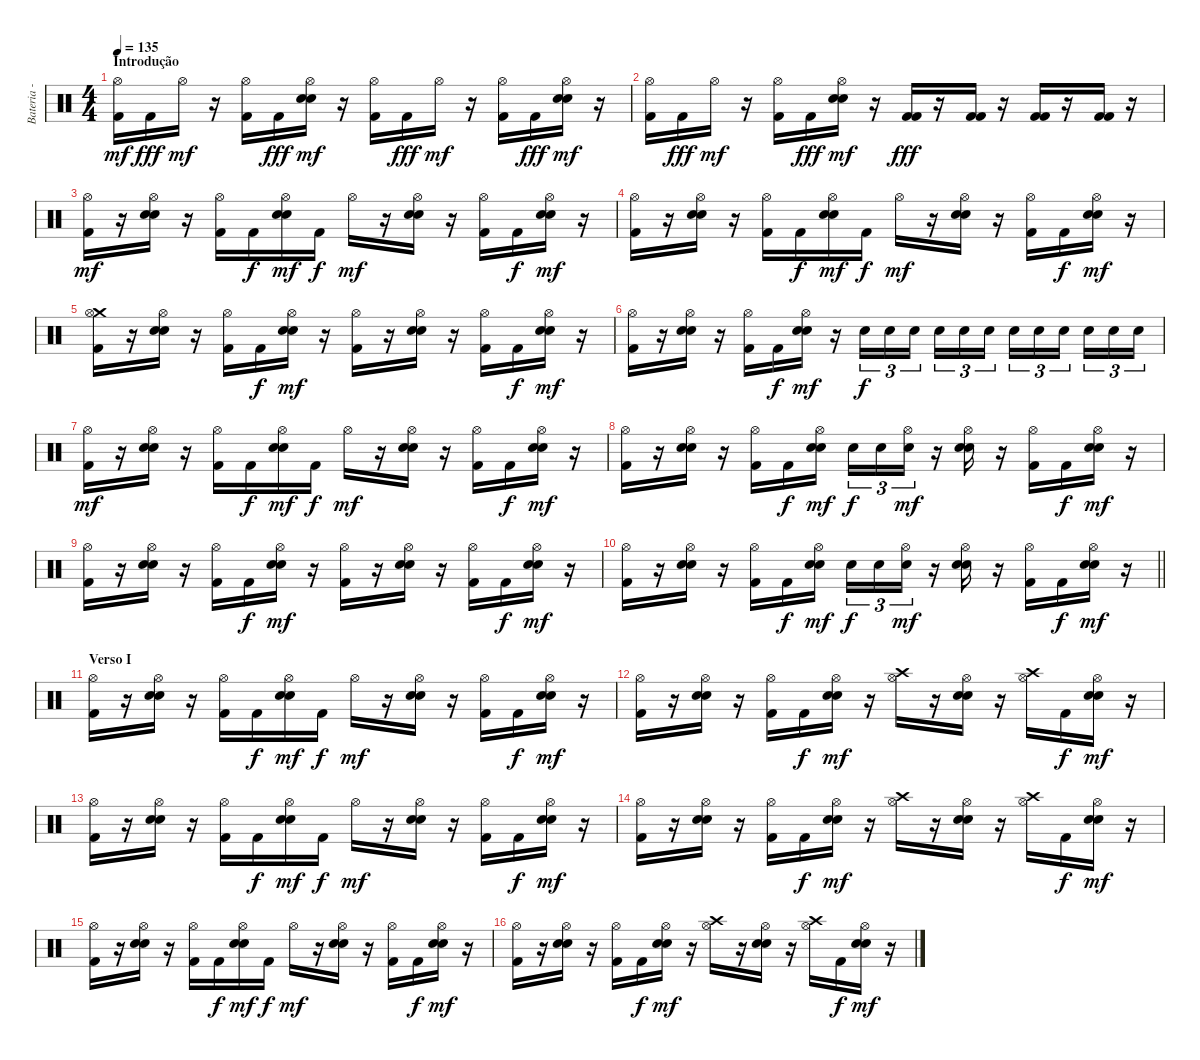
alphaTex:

\track ("Bateria - Larzon" "Bateria - ") {instrument percussion}
\staff {score}
\articulation defaults
\ts (4 4)
\section ("" "Introdução")
\tempo 135
\clef neutral
\ks c
("Kick (hit) 2" "Hi-Hat (open)").16{dy mf} "Kick (hit) 2".16{dy fff} "Hi-Hat (open)".16{dy mf} r.16 ("Kick (hit) 2" "Hi-Hat (open)").16 "Kick (hit) 2".16{dy fff} ("Electric Snare (hit)" "Electric Snare (hit)" "Hi-Hat (open)").16{dy mf} r.16 ("Kick (hit) 2" "Hi-Hat (open)").16 "Kick (hit) 2".16{dy fff} "Hi-Hat (open)".16{dy mf} r.16 ("Kick (hit) 2" "Hi-Hat (open)").16 "Kick (hit) 2".16{dy fff} ("Electric Snare (hit)" "Electric Snare (hit)" "Hi-Hat (open)").16{dy mf} r.16 |
("Kick (hit) 2" "Hi-Hat (open)").16 "Kick (hit) 2".16{dy fff} "Hi-Hat (open)".16{dy mf} r.16 ("Kick (hit) 2" "Hi-Hat (open)").16 "Kick (hit) 2".16{dy fff} ("Electric Snare (hit)" "Electric Snare (hit)" "Hi-Hat (open)").16{dy mf} r.16 ("Kick (hit) 2" "Kick (hit) 2").16{dy fff} r.16 ("Kick (hit) 2" "Kick (hit) 2").16 r.16 ("Kick (hit) 2" "Kick (hit) 2").16 r.16 ("Kick (hit) 2" "Kick (hit) 2").16 r.16 |
("Kick (hit) 2" "Hi-Hat (open)").16{dy mf} r.16 ("Electric Snare (hit)" "Electric Snare (hit)" "Hi-Hat (open)").16 r.16 ("Kick (hit) 2" "Hi-Hat (open)").16 "Kick (hit) 2".16{dy f} ("Electric Snare (hit)" "Electric Snare (hit)" "Hi-Hat (open)").16{dy mf} "Kick (hit) 2".16{dy f} "Hi-Hat (open)".16{dy mf} r.16 ("Electric Snare (hit)" "Electric Snare (hit)" "Hi-Hat (open)").16 r.16 ("Kick (hit) 2" "Hi-Hat (open)").16 "Kick (hit) 2".16{dy f} ("Electric Snare (hit)" "Electric Snare (hit)" "Hi-Hat (open)").16{dy mf} r.16 |
("Kick (hit) 2" "Hi-Hat (open)").16 r.16 ("Electric Snare (hit)" "Electric Snare (hit)" "Hi-Hat (open)").16 r.16 ("Kick (hit) 2" "Hi-Hat (open)").16 "Kick (hit) 2".16{dy f} ("Electric Snare (hit)" "Electric Snare (hit)" "Hi-Hat (open)").16{dy mf} "Kick (hit) 2".16{dy f} "Hi-Hat (open)".16{dy mf} r.16 ("Electric Snare (hit)" "Electric Snare (hit)" "Hi-Hat (open)").16 r.16 ("Kick (hit) 2" "Hi-Hat (open)").16 "Kick (hit) 2".16{dy f} ("Electric Snare (hit)" "Electric Snare (hit)" "Hi-Hat (open)").16{dy mf} r.16 |
("Kick (hit) 2" "Crash medium (hit)" "Hi-Hat (open)").16 r.16 ("Electric Snare (hit)" "Electric Snare (hit)" "Hi-Hat (open)").16 r.16 ("Kick (hit) 2" "Hi-Hat (open)").16 "Kick (hit) 2".16{dy f} ("Electric Snare (hit)" "Electric Snare (hit)" "Hi-Hat (open)").16{dy mf} r.16 ("Kick (hit) 2" "Hi-Hat (open)").16 r.16 ("Electric Snare (hit)" "Electric Snare (hit)" "Hi-Hat (open)").16 r.16 ("Kick (hit) 2" "Hi-Hat (open)").16 "Kick (hit) 2".16{dy f} ("Electric Snare (hit)" "Electric Snare (hit)" "Hi-Hat (open)").16{dy mf} r.16 |
("Kick (hit) 2" "Hi-Hat (open)").16 r.16 ("Electric Snare (hit)" "Electric Snare (hit)" "Hi-Hat (open)").16 r.16 ("Kick (hit) 2" "Hi-Hat (open)").16 "Kick (hit) 2".16{dy f} ("Electric Snare (hit)" "Electric Snare (hit)" "Hi-Hat (open)").16{dy mf} r.16 "Electric Snare (hit)".16{tu (3 2) dy f} "Electric Snare (hit)".16{tu (3 2)} "Electric Snare (hit)".16{tu (3 2)} "Electric Snare (hit)".16{tu (3 2)} "Electric Snare (hit)".16{tu (3 2)} "Electric Snare (hit)".16{tu (3 2)} "Electric Snare (hit)".16{tu (3 2)} "Electric Snare (hit)".16{tu (3 2)} "Electric Snare (hit)".16{tu (3 2)} "Electric Snare (hit)".16{tu (3 2)} "Electric Snare (hit)".16{tu (3 2)} "Electric Snare (hit)".16{tu (3 2)} |
("Kick (hit) 2" "Hi-Hat (open)").16{dy mf} r.16 ("Electric Snare (hit)" "Electric Snare (hit)" "Hi-Hat (open)").16 r.16 ("Kick (hit) 2" "Hi-Hat (open)").16 "Kick (hit) 2".16{dy f} ("Electric Snare (hit)" "Electric Snare (hit)" "Hi-Hat (open)").16{dy mf} "Kick (hit) 2".16{dy f} "Hi-Hat (open)".16{dy mf} r.16 ("Electric Snare (hit)" "Electric Snare (hit)" "Hi-Hat (open)").16 r.16 ("Kick (hit) 2" "Hi-Hat (open)").16 "Kick (hit) 2".16{dy f} ("Electric Snare (hit)" "Electric Snare (hit)" "Hi-Hat (open)").16{dy mf} r.16 |
("Kick (hit) 2" "Hi-Hat (open)").16 r.16 ("Electric Snare (hit)" "Electric Snare (hit)" "Hi-Hat (open)").16 r.16 ("Kick (hit) 2" "Hi-Hat (open)").16 "Kick (hit) 2".16{dy f} ("Electric Snare (hit)" "Electric Snare (hit)" "Hi-Hat (open)").16{dy mf} "Electric Snare (hit)".16{tu (3 2) dy f} "Electric Snare (hit)".16{tu (3 2)} ("Electric Snare (hit)" "Hi-Hat (open)").16{tu (3 2) dy mf} r.16 ("Electric Snare (hit)" "Electric Snare (hit)" "Hi-Hat (open)").16 r.16 ("Kick (hit) 2" "Hi-Hat (open)").16 "Kick (hit) 2".16{dy f} ("Electric Snare (hit)" "Electric Snare (hit)" "Hi-Hat (open)").16{dy mf} r.16 |
("Kick (hit) 2" "Hi-Hat (open)").16 r.16 ("Electric Snare (hit)" "Electric Snare (hit)" "Hi-Hat (open)").16 r.16 ("Kick (hit) 2" "Hi-Hat (open)").16 "Kick (hit) 2".16{dy f} ("Electric Snare (hit)" "Electric Snare (hit)" "Hi-Hat (open)").16{dy mf} r.16 ("Kick (hit) 2" "Hi-Hat (open)").16 r.16 ("Electric Snare (hit)" "Electric Snare (hit)" "Hi-Hat (open)").16 r.16 ("Kick (hit) 2" "Hi-Hat (open)").16 "Kick (hit) 2".16{dy f} ("Electric Snare (hit)" "Electric Snare (hit)" "Hi-Hat (open)").16{dy mf} r.16 |
\barLineRight lightlight
("Kick (hit) 2" "Hi-Hat (open)").16 r.16 ("Electric Snare (hit)" "Electric Snare (hit)" "Hi-Hat (open)").16 r.16 ("Kick (hit) 2" "Hi-Hat (open)").16 "Kick (hit) 2".16{dy f} ("Electric Snare (hit)" "Electric Snare (hit)" "Hi-Hat (open)").16{dy mf} "Electric Snare (hit)".16{tu (3 2) dy f} "Electric Snare (hit)".16{tu (3 2)} ("Electric Snare (hit)" "Hi-Hat (open)").16{tu (3 2) dy mf} r.16 ("Electric Snare (hit)" "Electric Snare (hit)" "Hi-Hat (open)").16 r.16 ("Kick (hit) 2" "Hi-Hat (open)").16 "Kick (hit) 2".16{dy f} ("Electric Snare (hit)" "Electric Snare (hit)" "Hi-Hat (open)").16{dy mf} r.16 |
\section ("" "Verso I")
("Kick (hit) 2" "Hi-Hat (open)").16 r.16 ("Electric Snare (hit)" "Electric Snare (hit)" "Hi-Hat (open)").16 r.16 ("Kick (hit) 2" "Hi-Hat (open)").16 "Kick (hit) 2".16{dy f} ("Electric Snare (hit)" "Electric Snare (hit)" "Hi-Hat (open)").16{dy mf} "Kick (hit) 2".16{dy f} "Hi-Hat (open)".16{dy mf} r.16 ("Electric Snare (hit)" "Electric Snare (hit)" "Hi-Hat (open)").16 r.16 ("Kick (hit) 2" "Hi-Hat (open)").16 "Kick (hit) 2".16{dy f} ("Electric Snare (hit)" "Electric Snare (hit)" "Hi-Hat (open)").16{dy mf} r.16 |
("Kick (hit) 2" "Hi-Hat (open)").16 r.16 ("Electric Snare (hit)" "Electric Snare (hit)" "Hi-Hat (open)").16 r.16 ("Kick (hit) 2" "Hi-Hat (open)").16 "Kick (hit) 2".16{dy f} ("Electric Snare (hit)" "Electric Snare (hit)" "Hi-Hat (open)").16{dy mf} r.16 ("Crash high (hit)" "Hi-Hat (open)").16 r.16 ("Electric Snare (hit)" "Electric Snare (hit)" "Hi-Hat (open)").16 r.16 ("Crash high (hit)" "Hi-Hat (open)").16 "Kick (hit) 2".16{dy f} ("Electric Snare (hit)" "Electric Snare (hit)" "Hi-Hat (open)").16{dy mf} r.16 |
("Kick (hit) 2" "Hi-Hat (open)").16 r.16 ("Electric Snare (hit)" "Electric Snare (hit)" "Hi-Hat (open)").16 r.16 ("Kick (hit) 2" "Hi-Hat (open)").16 "Kick (hit) 2".16{dy f} ("Electric Snare (hit)" "Electric Snare (hit)" "Hi-Hat (open)").16{dy mf} "Kick (hit) 2".16{dy f} "Hi-Hat (open)".16{dy mf} r.16 ("Electric Snare (hit)" "Electric Snare (hit)" "Hi-Hat (open)").16 r.16 ("Kick (hit) 2" "Hi-Hat (open)").16 "Kick (hit) 2".16{dy f} ("Electric Snare (hit)" "Electric Snare (hit)" "Hi-Hat (open)").16{dy mf} r.16 |
("Kick (hit) 2" "Hi-Hat (open)").16 r.16 ("Electric Snare (hit)" "Electric Snare (hit)" "Hi-Hat (open)").16 r.16 ("Kick (hit) 2" "Hi-Hat (open)").16 "Kick (hit) 2".16{dy f} ("Electric Snare (hit)" "Electric Snare (hit)" "Hi-Hat (open)").16{dy mf} r.16 ("Crash high (hit)" "Hi-Hat (open)").16 r.16 ("Electric Snare (hit)" "Electric Snare (hit)" "Hi-Hat (open)").16 r.16 ("Crash high (hit)" "Hi-Hat (open)").16 "Kick (hit) 2".16{dy f} ("Electric Snare (hit)" "Electric Snare (hit)" "Hi-Hat (open)").16{dy mf} r.16 |
("Kick (hit) 2" "Hi-Hat (open)").16 r.16 ("Electric Snare (hit)" "Electric Snare (hit)" "Hi-Hat (open)").16 r.16 ("Kick (hit) 2" "Hi-Hat (open)").16 "Kick (hit) 2".16{dy f} ("Electric Snare (hit)" "Electric Snare (hit)" "Hi-Hat (open)").16{dy mf} "Kick (hit) 2".16{dy f} "Hi-Hat (open)".16{dy mf} r.16 ("Electric Snare (hit)" "Electric Snare (hit)" "Hi-Hat (open)").16 r.16 ("Kick (hit) 2" "Hi-Hat (open)").16 "Kick (hit) 2".16{dy f} ("Electric Snare (hit)" "Electric Snare (hit)" "Hi-Hat (open)").16{dy mf} r.16 |
("Kick (hit) 2" "Hi-Hat (open)").16 r.16 ("Electric Snare (hit)" "Electric Snare (hit)" "Hi-Hat (open)").16 r.16 ("Kick (hit) 2" "Hi-Hat (open)").16 "Kick (hit) 2".16{dy f} ("Electric Snare (hit)" "Electric Snare (hit)" "Hi-Hat (open)").16{dy mf} r.16 ("Crash high (hit)" "Hi-Hat (open)").16 r.16 ("Electric Snare (hit)" "Electric Snare (hit)" "Hi-Hat (open)").16 r.16 ("Crash high (hit)" "Hi-Hat (open)").16 "Kick (hit) 2".16{dy f} ("Electric Snare (hit)" "Electric Snare (hit)" "Hi-Hat (open)").16{dy mf} r.16
